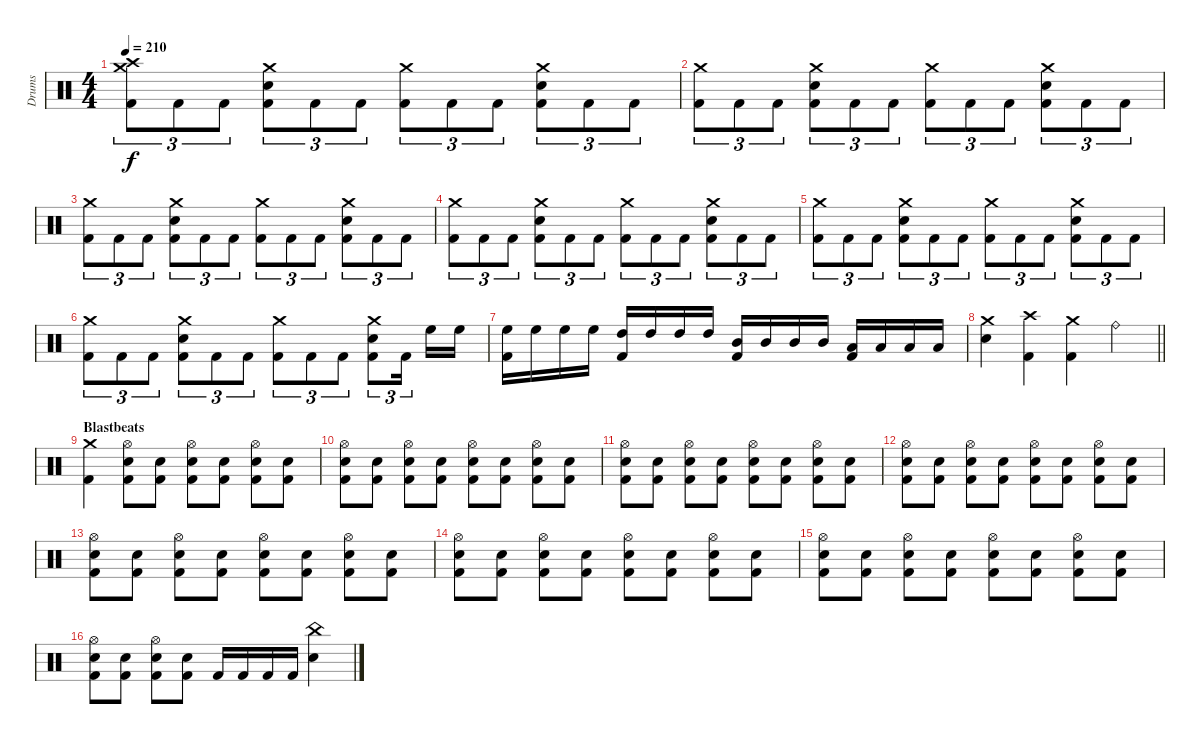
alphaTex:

\track ("Drums" "Drums") {instrument percussion}
\staff {score}
\articulation defaults
\ts (4 4)
\tempo 210
\clef neutral
\ks c
("Crash medium (hit)" "Crash high (hit)" "Kick (hit) 2").8{tu (3 2) dy f} "Kick (hit) 2".8{tu (3 2)} "Kick (hit) 2".8{tu (3 2)} ("Crash medium (hit)" "Electric Snare (hit)" "Kick (hit) 2").8{tu (3 2)} "Kick (hit) 2".8{tu (3 2)} "Kick (hit) 2".8{tu (3 2)} ("Crash medium (hit)" "Kick (hit) 2").8{tu (3 2)} "Kick (hit) 2".8{tu (3 2)} "Kick (hit) 2".8{tu (3 2)} ("Crash medium (hit)" "Electric Snare (hit)" "Kick (hit) 2").8{tu (3 2)} "Kick (hit) 2".8{tu (3 2)} "Kick (hit) 2".8{tu (3 2)} |
("Crash medium (hit)" "Kick (hit) 2").8{tu (3 2)} "Kick (hit) 2".8{tu (3 2)} "Kick (hit) 2".8{tu (3 2)} ("Crash medium (hit)" "Electric Snare (hit)" "Kick (hit) 2").8{tu (3 2)} "Kick (hit) 2".8{tu (3 2)} "Kick (hit) 2".8{tu (3 2)} ("Crash medium (hit)" "Kick (hit) 2").8{tu (3 2)} "Kick (hit) 2".8{tu (3 2)} "Kick (hit) 2".8{tu (3 2)} ("Crash medium (hit)" "Electric Snare (hit)" "Kick (hit) 2").8{tu (3 2)} "Kick (hit) 2".8{tu (3 2)} "Kick (hit) 2".8{tu (3 2)} |
("Crash medium (hit)" "Kick (hit) 2").8{tu (3 2)} "Kick (hit) 2".8{tu (3 2)} "Kick (hit) 2".8{tu (3 2)} ("Crash medium (hit)" "Electric Snare (hit)" "Kick (hit) 2").8{tu (3 2)} "Kick (hit) 2".8{tu (3 2)} "Kick (hit) 2".8{tu (3 2)} ("Crash medium (hit)" "Kick (hit) 2").8{tu (3 2)} "Kick (hit) 2".8{tu (3 2)} "Kick (hit) 2".8{tu (3 2)} ("Crash medium (hit)" "Electric Snare (hit)" "Kick (hit) 2").8{tu (3 2)} "Kick (hit) 2".8{tu (3 2)} "Kick (hit) 2".8{tu (3 2)} |
("Crash medium (hit)" "Kick (hit) 2").8{tu (3 2)} "Kick (hit) 2".8{tu (3 2)} "Kick (hit) 2".8{tu (3 2)} ("Crash medium (hit)" "Electric Snare (hit)" "Kick (hit) 2").8{tu (3 2)} "Kick (hit) 2".8{tu (3 2)} "Kick (hit) 2".8{tu (3 2)} ("Crash medium (hit)" "Kick (hit) 2").8{tu (3 2)} "Kick (hit) 2".8{tu (3 2)} "Kick (hit) 2".8{tu (3 2)} ("Crash medium (hit)" "Electric Snare (hit)" "Kick (hit) 2").8{tu (3 2)} "Kick (hit) 2".8{tu (3 2)} "Kick (hit) 2".8{tu (3 2)} |
("Crash medium (hit)" "Kick (hit) 2").8{tu (3 2)} "Kick (hit) 2".8{tu (3 2)} "Kick (hit) 2".8{tu (3 2)} ("Crash medium (hit)" "Electric Snare (hit)" "Kick (hit) 2").8{tu (3 2)} "Kick (hit) 2".8{tu (3 2)} "Kick (hit) 2".8{tu (3 2)} ("Crash medium (hit)" "Kick (hit) 2").8{tu (3 2)} "Kick (hit) 2".8{tu (3 2)} "Kick (hit) 2".8{tu (3 2)} ("Crash medium (hit)" "Electric Snare (hit)" "Kick (hit) 2").8{tu (3 2)} "Kick (hit) 2".8{tu (3 2)} "Kick (hit) 2".8{tu (3 2)} |
("Crash medium (hit)" "Kick (hit) 2").8{tu (3 2)} "Kick (hit) 2".8{tu (3 2)} "Kick (hit) 2".8{tu (3 2)} ("Crash medium (hit)" "Electric Snare (hit)" "Kick (hit) 2").8{tu (3 2)} "Kick (hit) 2".8{tu (3 2)} "Kick (hit) 2".8{tu (3 2)} ("Crash medium (hit)" "Kick (hit) 2").8{tu (3 2)} "Kick (hit) 2".8{tu (3 2)} "Kick (hit) 2".8{tu (3 2)} ("Crash medium (hit)" "Electric Snare (hit)" "Kick (hit) 2").8{tu (3 2)} "Kick (hit) 2".16{tu (3 2) beam splitsecondary} "High Floor Tom (hit)".16 "High Floor Tom (hit)".16 |
("High Floor Tom (hit)" "Kick (hit) 2").16 "High Floor Tom (hit)".16 "High Floor Tom (hit)".16 "High Floor Tom (hit)".16 ("High Tom (hit)" "Kick (hit) 2").16 "High Tom (hit)".16 "High Tom (hit)".16 "High Tom (hit)".16 ("Mid Tom (hit)" "Kick (hit) 2").16 "Mid Tom (hit)".16 "Mid Tom (hit)".16 "Mid Tom (hit)".16 ("Low Tom (hit)" "Kick (hit) 2").16 "Low Tom (hit)".16 "Low Tom (hit)".16 "Low Tom (hit)".16 |
\barLineRight lightlight
("Crash medium (hit)" "Electric Snare (hit)").4 ("Crash high (hit)" "Kick (hit) 2").4 ("Crash medium (hit)" "Kick (hit) 2").4 "Ride (bell)".4 |
\section ("" "Blastbeats")
("Crash medium (hit)" "Kick (hit) 2").4 ("Hi-Hat (open)" "Electric Snare (hit)" "Kick (hit) 2").8 ("Electric Snare (hit)" "Kick (hit) 2").8 ("Hi-Hat (open)" "Electric Snare (hit)" "Kick (hit) 2").8 ("Electric Snare (hit)" "Kick (hit) 2").8 ("Hi-Hat (open)" "Electric Snare (hit)" "Kick (hit) 2").8 ("Electric Snare (hit)" "Kick (hit) 2").8 |
("Hi-Hat (open)" "Electric Snare (hit)" "Kick (hit) 2").8 ("Electric Snare (hit)" "Kick (hit) 2").8 ("Hi-Hat (open)" "Electric Snare (hit)" "Kick (hit) 2").8 ("Electric Snare (hit)" "Kick (hit) 2").8 ("Hi-Hat (open)" "Electric Snare (hit)" "Kick (hit) 2").8 ("Electric Snare (hit)" "Kick (hit) 2").8 ("Hi-Hat (open)" "Electric Snare (hit)" "Kick (hit) 2").8 ("Electric Snare (hit)" "Kick (hit) 2").8 |
("Hi-Hat (open)" "Electric Snare (hit)" "Kick (hit) 2").8 ("Electric Snare (hit)" "Kick (hit) 2").8 ("Hi-Hat (open)" "Electric Snare (hit)" "Kick (hit) 2").8 ("Electric Snare (hit)" "Kick (hit) 2").8 ("Hi-Hat (open)" "Electric Snare (hit)" "Kick (hit) 2").8 ("Electric Snare (hit)" "Kick (hit) 2").8 ("Hi-Hat (open)" "Electric Snare (hit)" "Kick (hit) 2").8 ("Electric Snare (hit)" "Kick (hit) 2").8 |
("Hi-Hat (open)" "Electric Snare (hit)" "Kick (hit) 2").8 ("Electric Snare (hit)" "Kick (hit) 2").8 ("Hi-Hat (open)" "Electric Snare (hit)" "Kick (hit) 2").8 ("Electric Snare (hit)" "Kick (hit) 2").8 ("Hi-Hat (open)" "Electric Snare (hit)" "Kick (hit) 2").8 ("Electric Snare (hit)" "Kick (hit) 2").8 ("Hi-Hat (open)" "Electric Snare (hit)" "Kick (hit) 2").8 ("Electric Snare (hit)" "Kick (hit) 2").8 |
("Hi-Hat (open)" "Electric Snare (hit)" "Kick (hit) 2").8 ("Electric Snare (hit)" "Kick (hit) 2").8 ("Hi-Hat (open)" "Electric Snare (hit)" "Kick (hit) 2").8 ("Electric Snare (hit)" "Kick (hit) 2").8 ("Hi-Hat (open)" "Electric Snare (hit)" "Kick (hit) 2").8 ("Electric Snare (hit)" "Kick (hit) 2").8 ("Hi-Hat (open)" "Electric Snare (hit)" "Kick (hit) 2").8 ("Electric Snare (hit)" "Kick (hit) 2").8 |
("Hi-Hat (open)" "Electric Snare (hit)" "Kick (hit) 2").8 ("Electric Snare (hit)" "Kick (hit) 2").8 ("Hi-Hat (open)" "Electric Snare (hit)" "Kick (hit) 2").8 ("Electric Snare (hit)" "Kick (hit) 2").8 ("Hi-Hat (open)" "Electric Snare (hit)" "Kick (hit) 2").8 ("Electric Snare (hit)" "Kick (hit) 2").8 ("Hi-Hat (open)" "Electric Snare (hit)" "Kick (hit) 2").8 ("Electric Snare (hit)" "Kick (hit) 2").8 |
("Hi-Hat (open)" "Electric Snare (hit)" "Kick (hit) 2").8 ("Electric Snare (hit)" "Kick (hit) 2").8 ("Hi-Hat (open)" "Electric Snare (hit)" "Kick (hit) 2").8 ("Electric Snare (hit)" "Kick (hit) 2").8 ("Hi-Hat (open)" "Electric Snare (hit)" "Kick (hit) 2").8 ("Electric Snare (hit)" "Kick (hit) 2").8 ("Hi-Hat (open)" "Electric Snare (hit)" "Kick (hit) 2").8 ("Electric Snare (hit)" "Kick (hit) 2").8 |
("Hi-Hat (open)" "Electric Snare (hit)" "Kick (hit) 2").8 ("Electric Snare (hit)" "Kick (hit) 2").8 ("Hi-Hat (open)" "Electric Snare (hit)" "Kick (hit) 2").8 ("Electric Snare (hit)" "Kick (hit) 2").8 "Kick (hit) 2".16 "Kick (hit) 2".16 "Kick (hit) 2".16 "Kick (hit) 2".16 ("China (hit)" "Electric Snare (hit)").4
